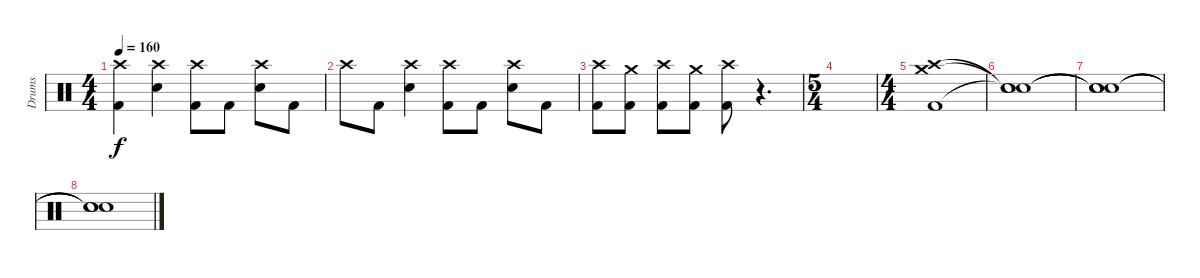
\track ("Drums" "Drums") {instrument percussion}
\staff {score}
\articulation defaults
\ts (4 4)
\tempo 160
\clef neutral
\ks c
("Crash high (hit)" "Kick (hit) 2").4{dy f} ("Crash high (hit)" "Electric Snare (hit)").4 ("Crash high (hit)" "Kick (hit) 2").8 "Kick (hit) 2".8 ("Crash high (hit)" "Electric Snare (hit)").8 "Kick (hit) 2".8 |
"Crash high (hit)".8 "Kick (hit) 2".8 ("Crash high (hit)" "Electric Snare (hit)").4 ("Crash high (hit)" "Kick (hit) 2").8 "Kick (hit) 2".8 ("Crash high (hit)" "Electric Snare (hit)").8 "Kick (hit) 2".8 |
("Crash high (hit)" "Kick (hit) 2").8 ("Crash medium (hit)" "Kick (hit) 2").8 ("Crash high (hit)" "Kick (hit) 2").8 ("Crash medium (hit)" "Kick (hit) 2").8 ("Crash high (hit)" "Kick (hit) 2").8 r.4{d volume 0} |
\ts (5 4)
|
\ts (4 4)
("Crash high (hit)" "Crash medium (hit)" "Kick (hit) 2").1{volume 16} |
("Snare (hit)"{t} "Snare (hit)"{t} "Snare (hit)"{t}).1 |
("Snare (hit)"{t} "Snare (hit)"{t} "Snare (hit)"{t}).1{volume 0} |
("Snare (hit)"{t} "Snare (hit)"{t} "Snare (hit)"{t}).1
